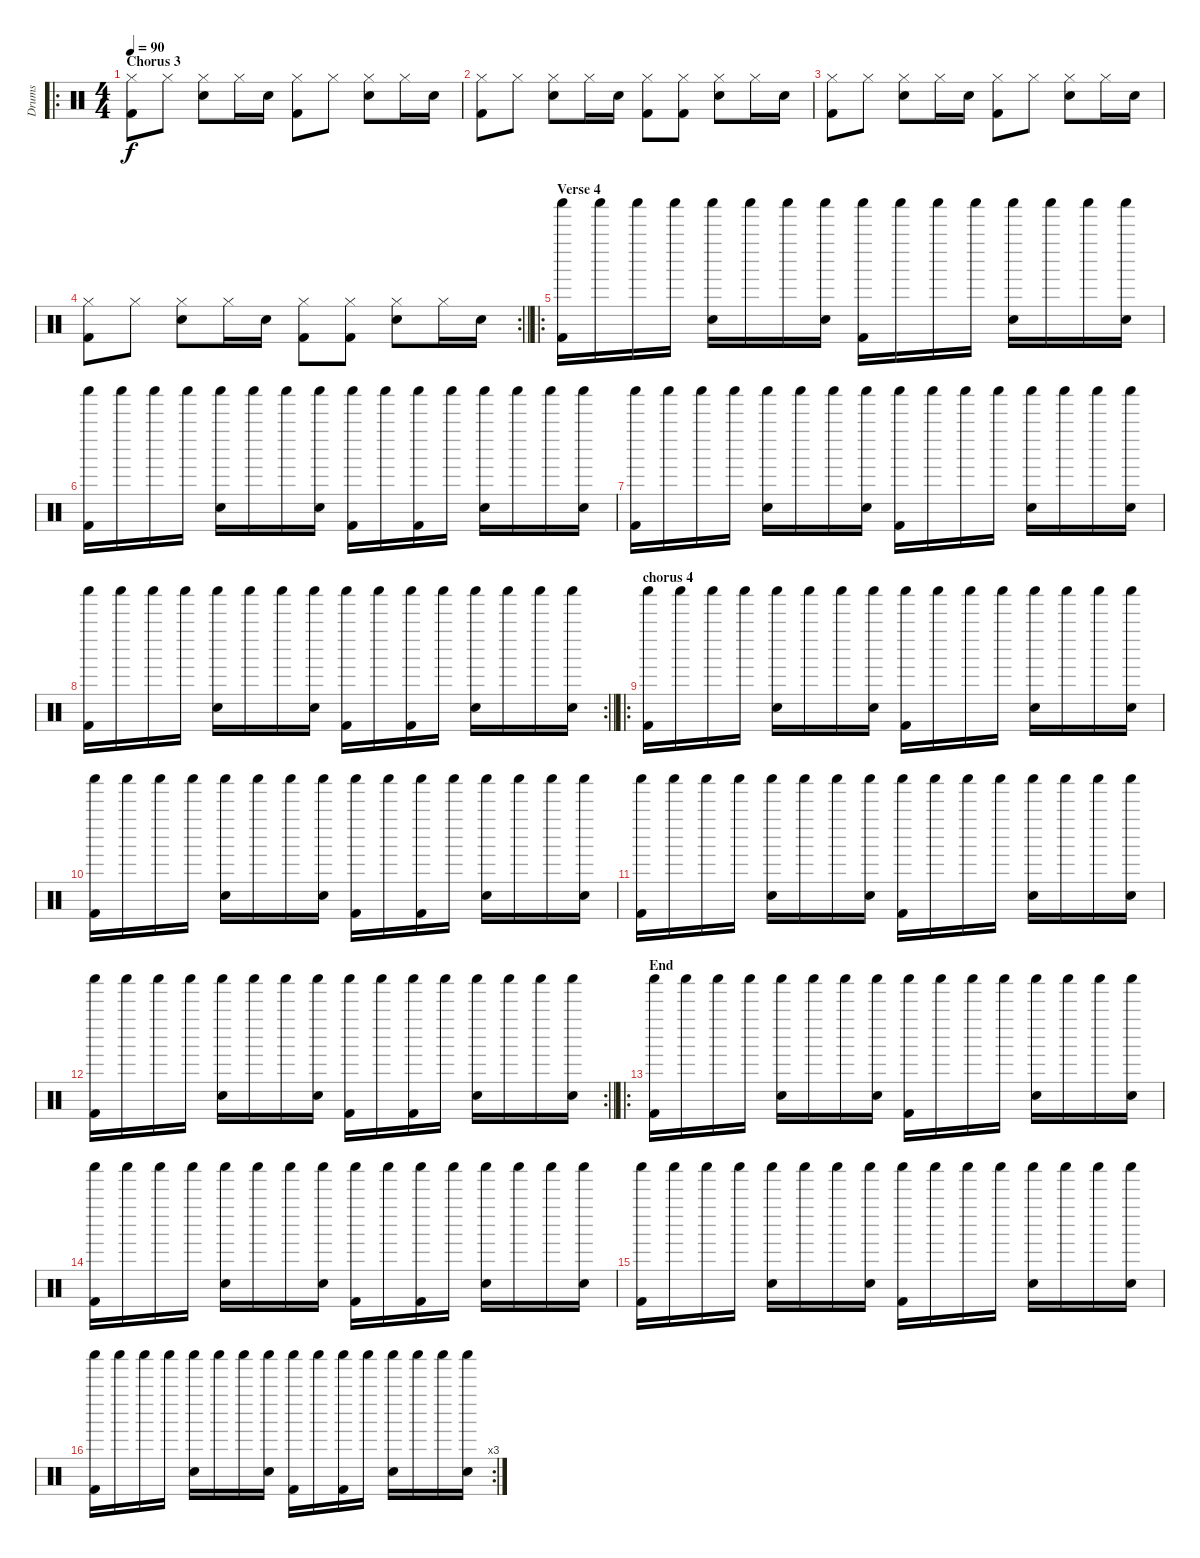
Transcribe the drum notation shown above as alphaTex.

\track ("Drums" "Drums") {instrument percussion}
\staff
\articulation defaults
\ro
\ts (4 4)
\section ("" "Chorus 3")
\tempo 90
\clef neutral
\ks c
("Hi-Hat (closed)" "Kick (hit) 2").8{dy f} "Hi-Hat (closed)".8 ("Hi-Hat (closed)" "Electric Snare (hit)").8 "Hi-Hat (closed)".16 "Electric Snare (hit)".16 ("Hi-Hat (closed)" "Kick (hit) 2").8 "Hi-Hat (closed)".8 ("Hi-Hat (closed)" "Electric Snare (hit)").8 "Hi-Hat (closed)".16 "Electric Snare (hit)".16 |
("Hi-Hat (closed)" "Kick (hit) 2").8 "Hi-Hat (closed)".8 ("Hi-Hat (closed)" "Electric Snare (hit)").8 "Hi-Hat (closed)".16 "Electric Snare (hit)".16 ("Hi-Hat (closed)" "Kick (hit) 2").8 ("Hi-Hat (closed)" "Kick (hit) 2").8 ("Hi-Hat (closed)" "Electric Snare (hit)").8 "Hi-Hat (closed)".16 "Electric Snare (hit)".16 |
("Hi-Hat (closed)" "Kick (hit) 2").8 "Hi-Hat (closed)".8 ("Hi-Hat (closed)" "Electric Snare (hit)").8 "Hi-Hat (closed)".16 "Electric Snare (hit)".16 ("Hi-Hat (closed)" "Kick (hit) 2").8 "Hi-Hat (closed)".8 ("Hi-Hat (closed)" "Electric Snare (hit)").8 "Hi-Hat (closed)".16 "Electric Snare (hit)".16 |
\rc 2
\barLineRight lightlight
("Hi-Hat (closed)" "Kick (hit) 2").8 "Hi-Hat (closed)".8 ("Hi-Hat (closed)" "Electric Snare (hit)").8 "Hi-Hat (closed)".16 "Electric Snare (hit)".16 ("Hi-Hat (closed)" "Kick (hit) 2").8 ("Hi-Hat (closed)" "Kick (hit) 2").8 ("Hi-Hat (closed)" "Electric Snare (hit)").8 "Hi-Hat (closed)".16 "Electric Snare (hit)".16 |
\ro
\section ("" "Verse 4")
("Shaker (hit)" "Kick (hit) 2").16 "Shaker (hit)".16 "Shaker (hit)".16 "Shaker (hit)".16 ("Shaker (hit)" "Electric Snare (hit)").16 "Shaker (hit)".16 "Shaker (hit)".16 ("Shaker (hit)" "Electric Snare (hit)").16 ("Shaker (hit)" "Kick (hit) 2").16 "Shaker (hit)".16 "Shaker (hit)".16 "Shaker (hit)".16 ("Shaker (hit)" "Electric Snare (hit)").16 "Shaker (hit)".16 "Shaker (hit)".16 ("Shaker (hit)" "Electric Snare (hit)").16 |
("Shaker (hit)" "Kick (hit) 2").16 "Shaker (hit)".16 "Shaker (hit)".16 "Shaker (hit)".16 ("Shaker (hit)" "Electric Snare (hit)").16 "Shaker (hit)".16 "Shaker (hit)".16 ("Shaker (hit)" "Electric Snare (hit)").16 ("Shaker (hit)" "Kick (hit) 2").16 "Shaker (hit)".16 ("Shaker (hit)" "Kick (hit) 2").16 "Shaker (hit)".16 ("Shaker (hit)" "Electric Snare (hit)").16 "Shaker (hit)".16 "Shaker (hit)".16 ("Shaker (hit)" "Electric Snare (hit)").16 |
("Shaker (hit)" "Kick (hit) 2").16 "Shaker (hit)".16 "Shaker (hit)".16 "Shaker (hit)".16 ("Shaker (hit)" "Electric Snare (hit)").16 "Shaker (hit)".16 "Shaker (hit)".16 ("Shaker (hit)" "Electric Snare (hit)").16 ("Shaker (hit)" "Kick (hit) 2").16 "Shaker (hit)".16 "Shaker (hit)".16 "Shaker (hit)".16 ("Shaker (hit)" "Electric Snare (hit)").16 "Shaker (hit)".16 "Shaker (hit)".16 ("Shaker (hit)" "Electric Snare (hit)").16 |
\rc 2
\barLineRight lightlight
("Shaker (hit)" "Kick (hit) 2").16 "Shaker (hit)".16 "Shaker (hit)".16 "Shaker (hit)".16 ("Shaker (hit)" "Electric Snare (hit)").16 "Shaker (hit)".16 "Shaker (hit)".16 ("Shaker (hit)" "Electric Snare (hit)").16 ("Shaker (hit)" "Kick (hit) 2").16 "Shaker (hit)".16 ("Shaker (hit)" "Kick (hit) 2").16 "Shaker (hit)".16 ("Shaker (hit)" "Electric Snare (hit)").16 "Shaker (hit)".16 "Shaker (hit)".16 ("Shaker (hit)" "Electric Snare (hit)").16 |
\ro
\section ("" "chorus 4")
("Shaker (hit)" "Kick (hit) 2").16 "Shaker (hit)".16 "Shaker (hit)".16 "Shaker (hit)".16 ("Shaker (hit)" "Electric Snare (hit)").16 "Shaker (hit)".16 "Shaker (hit)".16 ("Shaker (hit)" "Electric Snare (hit)").16 ("Shaker (hit)" "Kick (hit) 2").16 "Shaker (hit)".16 "Shaker (hit)".16 "Shaker (hit)".16 ("Shaker (hit)" "Electric Snare (hit)").16 "Shaker (hit)".16 "Shaker (hit)".16 ("Shaker (hit)" "Electric Snare (hit)").16 |
("Shaker (hit)" "Kick (hit) 2").16 "Shaker (hit)".16 "Shaker (hit)".16 "Shaker (hit)".16 ("Shaker (hit)" "Electric Snare (hit)").16 "Shaker (hit)".16 "Shaker (hit)".16 ("Shaker (hit)" "Electric Snare (hit)").16 ("Shaker (hit)" "Kick (hit) 2").16 "Shaker (hit)".16 ("Shaker (hit)" "Kick (hit) 2").16 "Shaker (hit)".16 ("Shaker (hit)" "Electric Snare (hit)").16 "Shaker (hit)".16 "Shaker (hit)".16 ("Shaker (hit)" "Electric Snare (hit)").16 |
("Shaker (hit)" "Kick (hit) 2").16 "Shaker (hit)".16 "Shaker (hit)".16 "Shaker (hit)".16 ("Shaker (hit)" "Electric Snare (hit)").16 "Shaker (hit)".16 "Shaker (hit)".16 ("Shaker (hit)" "Electric Snare (hit)").16 ("Shaker (hit)" "Kick (hit) 2").16 "Shaker (hit)".16 "Shaker (hit)".16 "Shaker (hit)".16 ("Shaker (hit)" "Electric Snare (hit)").16 "Shaker (hit)".16 "Shaker (hit)".16 ("Shaker (hit)" "Electric Snare (hit)").16 |
\rc 2
\barLineRight lightlight
("Shaker (hit)" "Kick (hit) 2").16 "Shaker (hit)".16 "Shaker (hit)".16 "Shaker (hit)".16 ("Shaker (hit)" "Electric Snare (hit)").16 "Shaker (hit)".16 "Shaker (hit)".16 ("Shaker (hit)" "Electric Snare (hit)").16 ("Shaker (hit)" "Kick (hit) 2").16 "Shaker (hit)".16 ("Shaker (hit)" "Kick (hit) 2").16 "Shaker (hit)".16 ("Shaker (hit)" "Electric Snare (hit)").16 "Shaker (hit)".16 "Shaker (hit)".16 ("Shaker (hit)" "Electric Snare (hit)").16 |
\ro
\section ("" "End")
("Shaker (hit)" "Kick (hit) 2").16 "Shaker (hit)".16 "Shaker (hit)".16 "Shaker (hit)".16 ("Shaker (hit)" "Electric Snare (hit)").16 "Shaker (hit)".16 "Shaker (hit)".16 ("Shaker (hit)" "Electric Snare (hit)").16 ("Shaker (hit)" "Kick (hit) 2").16 "Shaker (hit)".16 "Shaker (hit)".16 "Shaker (hit)".16 ("Shaker (hit)" "Electric Snare (hit)").16 "Shaker (hit)".16 "Shaker (hit)".16 ("Shaker (hit)" "Electric Snare (hit)").16 |
("Shaker (hit)" "Kick (hit) 2").16 "Shaker (hit)".16 "Shaker (hit)".16 "Shaker (hit)".16 ("Shaker (hit)" "Electric Snare (hit)").16 "Shaker (hit)".16 "Shaker (hit)".16 ("Shaker (hit)" "Electric Snare (hit)").16 ("Shaker (hit)" "Kick (hit) 2").16 "Shaker (hit)".16 ("Shaker (hit)" "Kick (hit) 2").16 "Shaker (hit)".16 ("Shaker (hit)" "Electric Snare (hit)").16 "Shaker (hit)".16 "Shaker (hit)".16 ("Shaker (hit)" "Electric Snare (hit)").16 |
("Shaker (hit)" "Kick (hit) 2").16 "Shaker (hit)".16 "Shaker (hit)".16 "Shaker (hit)".16 ("Shaker (hit)" "Electric Snare (hit)").16 "Shaker (hit)".16 "Shaker (hit)".16 ("Shaker (hit)" "Electric Snare (hit)").16 ("Shaker (hit)" "Kick (hit) 2").16 "Shaker (hit)".16 "Shaker (hit)".16 "Shaker (hit)".16 ("Shaker (hit)" "Electric Snare (hit)").16 "Shaker (hit)".16 "Shaker (hit)".16 ("Shaker (hit)" "Electric Snare (hit)").16 |
\rc 3
("Shaker (hit)" "Kick (hit) 2").16 "Shaker (hit)".16 "Shaker (hit)".16 "Shaker (hit)".16 ("Shaker (hit)" "Electric Snare (hit)").16 "Shaker (hit)".16 "Shaker (hit)".16 ("Shaker (hit)" "Electric Snare (hit)").16 ("Shaker (hit)" "Kick (hit) 2").16 "Shaker (hit)".16 ("Shaker (hit)" "Kick (hit) 2").16 "Shaker (hit)".16 ("Shaker (hit)" "Electric Snare (hit)").16 "Shaker (hit)".16 "Shaker (hit)".16 ("Shaker (hit)" "Electric Snare (hit)").16
